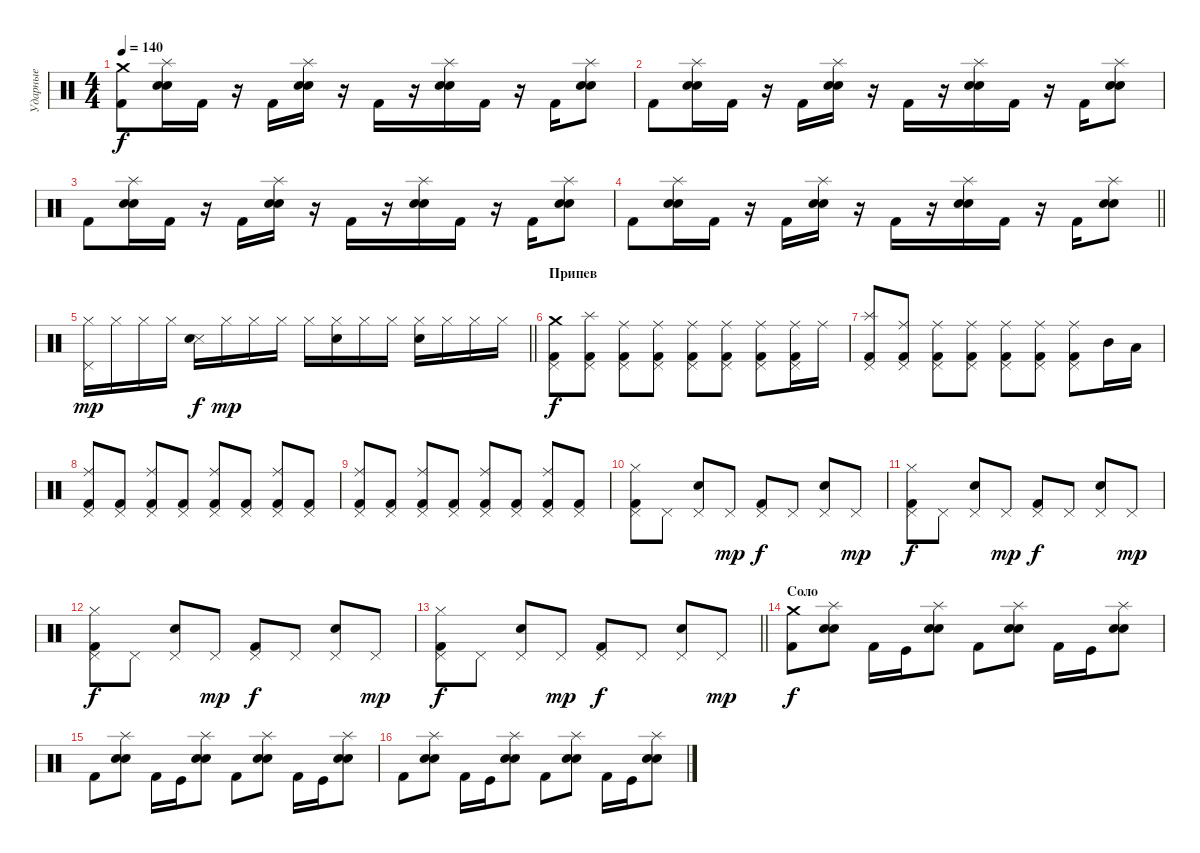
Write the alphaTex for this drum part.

\track ("Ударные" "Ударные") {instrument percussion}
\staff {score}
\articulation defaults
\ts (4 4)
\tempo 140
\clef neutral
\ks c
("Crash medium (hit)" "Kick (hit) 2").8{dy f} ("Splash (hit)" "Electric Snare (hit)" "Snare (hit) 2").16 "Kick (hit) 2".16 r.16 "Kick (hit) 2".16 ("Splash (hit)" "Electric Snare (hit)" "Snare (hit) 2").16 r.16 "Kick (hit) 2".16 r.16 ("Splash (hit)" "Electric Snare (hit)" "Snare (hit) 2").16 "Kick (hit) 2".16 r.16 "Kick (hit) 2".16 ("Splash (hit)" "Electric Snare (hit)" "Snare (hit) 2").8 |
"Kick (hit) 2".8 ("Splash (hit)" "Electric Snare (hit)" "Snare (hit) 2").16 "Kick (hit) 2".16 r.16 "Kick (hit) 2".16 ("Splash (hit)" "Electric Snare (hit)" "Snare (hit) 2").16 r.16 "Kick (hit) 2".16 r.16 ("Splash (hit)" "Electric Snare (hit)" "Snare (hit) 2").16 "Kick (hit) 2".16 r.16 "Kick (hit) 2".16 ("Splash (hit)" "Electric Snare (hit)" "Snare (hit) 2").8 |
"Kick (hit) 2".8 ("Splash (hit)" "Electric Snare (hit)" "Snare (hit) 2").16 "Kick (hit) 2".16 r.16 "Kick (hit) 2".16 ("Splash (hit)" "Electric Snare (hit)" "Snare (hit) 2").16 r.16 "Kick (hit) 2".16 r.16 ("Splash (hit)" "Electric Snare (hit)" "Snare (hit) 2").16 "Kick (hit) 2".16 r.16 "Kick (hit) 2".16 ("Splash (hit)" "Electric Snare (hit)" "Snare (hit) 2").8 |
\barLineRight lightlight "Kick (hit) 2".8
("Splash (hit)" "Electric Snare (hit)" "Snare (hit) 2").16 "Kick (hit) 2".16 r.16 "Kick (hit) 2".16 ("Splash (hit)" "Electric Snare (hit)" "Snare (hit) 2").16 r.16 "Kick (hit) 2".16 r.16 ("Splash (hit)" "Electric Snare (hit)" "Snare (hit) 2").16 "Kick (hit) 2".16 r.16 "Kick (hit) 2".16 ("Splash (hit)" "Electric Snare (hit)" "Snare (hit) 2").8 |
\barLineRight lightlight
("Pedal Hi-Hat (hit)" "Hi-Hat (closed)").16{dy mp} "Hi-Hat (closed)".16 "Hi-Hat (closed)".16 "Hi-Hat (closed)".16 ("Metronome (hit)" "Electric Snare (hit)").16{dy f} "Hi-Hat (closed)".16{dy mp} "Hi-Hat (closed)".16 "Hi-Hat (closed)".16 "Hi-Hat (closed)".16 ("Electric Snare (hit)" "Hi-Hat (closed)").16 "Hi-Hat (closed)".16 "Hi-Hat (closed)".16 ("Electric Snare (hit)" "Hi-Hat (closed)").16 "Hi-Hat (closed)".16 "Hi-Hat (closed)".16 "Hi-Hat (closed)".16 |
\section ("" "Припев")
("Crash medium (hit)" "Pedal Hi-Hat (hit)" "Kick (hit) 2").8{dy f} ("Splash (hit)" "Pedal Hi-Hat (hit)" "Kick (hit) 2").8 ("Ride (middle)" "Pedal Hi-Hat (hit)" "Kick (hit) 2").8 ("Ride (middle)" "Pedal Hi-Hat (hit)" "Kick (hit) 2").8 ("Ride (middle)" "Pedal Hi-Hat (hit)" "Kick (hit) 2").8 ("Ride (middle)" "Pedal Hi-Hat (hit)" "Kick (hit) 2").8 ("Ride (middle)" "Pedal Hi-Hat (hit)" "Kick (hit) 2").8 ("Ride (middle)" "Pedal Hi-Hat (hit)" "Kick (hit) 2").16 "Ride (middle)".16 |
("Splash (hit)" "Pedal Hi-Hat (hit)" "Kick (hit) 2").8 ("Ride (middle)" "Pedal Hi-Hat (hit)" "Kick (hit) 2").8 ("Ride (middle)" "Pedal Hi-Hat (hit)" "Kick (hit) 2").8 ("Ride (middle)" "Pedal Hi-Hat (hit)" "Kick (hit) 2").8 ("Ride (middle)" "Pedal Hi-Hat (hit)" "Kick (hit) 2").8 ("Ride (middle)" "Pedal Hi-Hat (hit)" "Kick (hit) 2").8 ("Ride (middle)" "Pedal Hi-Hat (hit)" "Kick (hit) 2").8 "Mid Tom (hit)".16 "Low Tom (hit)".16 |
("Ride (middle)" "Pedal Hi-Hat (hit)" "Kick (hit) 2").8 ("Pedal Hi-Hat (hit)" "Kick (hit) 2").8 ("Ride (middle)" "Pedal Hi-Hat (hit)" "Kick (hit) 2").8 ("Pedal Hi-Hat (hit)" "Kick (hit) 2").8 ("Ride (middle)" "Pedal Hi-Hat (hit)" "Kick (hit) 2").8 ("Pedal Hi-Hat (hit)" "Kick (hit) 2").8 ("Ride (middle)" "Pedal Hi-Hat (hit)" "Kick (hit) 2").8 ("Pedal Hi-Hat (hit)" "Kick (hit) 2").8 |
("Ride (middle)" "Pedal Hi-Hat (hit)" "Kick (hit) 2").8 ("Pedal Hi-Hat (hit)" "Kick (hit) 2").8 ("Ride (middle)" "Pedal Hi-Hat (hit)" "Kick (hit) 2").8 ("Pedal Hi-Hat (hit)" "Kick (hit) 2").8 ("Ride (middle)" "Pedal Hi-Hat (hit)" "Kick (hit) 2").8 ("Pedal Hi-Hat (hit)" "Kick (hit) 2").8 ("Ride (middle)" "Pedal Hi-Hat (hit)" "Kick (hit) 2").8 ("Pedal Hi-Hat (hit)" "Kick (hit) 2").8 |
("Pedal Hi-Hat (hit)" "Hi-Hat (closed)" "Kick (hit) 2").8 "Pedal Hi-Hat (hit)".8 ("Pedal Hi-Hat (hit)" "Electric Snare (hit)").8 "Pedal Hi-Hat (hit)".8{dy mp} ("Pedal Hi-Hat (hit)" "Kick (hit) 2").8{dy f} "Pedal Hi-Hat (hit)".8 ("Pedal Hi-Hat (hit)" "Electric Snare (hit)").8 "Pedal Hi-Hat (hit)".8{dy mp} |
("Pedal Hi-Hat (hit)" "Hi-Hat (closed)" "Kick (hit) 2").8{dy f} "Pedal Hi-Hat (hit)".8 ("Pedal Hi-Hat (hit)" "Electric Snare (hit)").8 "Pedal Hi-Hat (hit)".8{dy mp} ("Pedal Hi-Hat (hit)" "Kick (hit) 2").8{dy f} "Pedal Hi-Hat (hit)".8 ("Pedal Hi-Hat (hit)" "Electric Snare (hit)").8 "Pedal Hi-Hat (hit)".8{dy mp} |
("Pedal Hi-Hat (hit)" "Hi-Hat (closed)" "Kick (hit) 2").8{dy f} "Pedal Hi-Hat (hit)".8 ("Pedal Hi-Hat (hit)" "Electric Snare (hit)").8 "Pedal Hi-Hat (hit)".8{dy mp} ("Pedal Hi-Hat (hit)" "Kick (hit) 2").8{dy f} "Pedal Hi-Hat (hit)".8 ("Pedal Hi-Hat (hit)" "Electric Snare (hit)").8 "Pedal Hi-Hat (hit)".8{dy mp} |
\barLineRight lightlight
("Pedal Hi-Hat (hit)" "Hi-Hat (closed)" "Kick (hit) 2").8{dy f} "Pedal Hi-Hat (hit)".8 ("Pedal Hi-Hat (hit)" "Electric Snare (hit)").8 "Pedal Hi-Hat (hit)".8{dy mp} ("Pedal Hi-Hat (hit)" "Kick (hit) 2").8{dy f} "Pedal Hi-Hat (hit)".8 ("Pedal Hi-Hat (hit)" "Electric Snare (hit)").8 "Pedal Hi-Hat (hit)".8{dy mp} |
\section ("" "Соло")
("Crash medium (hit)" "Kick (hit) 2").8{dy f} ("Splash (hit)" "Electric Snare (hit)" "Snare (hit) 2").8 "Kick (hit) 2".16 "Kick (hit)".16 ("Splash (hit)" "Electric Snare (hit)" "Snare (hit) 2").8 "Kick (hit) 2".8 ("Splash (hit)" "Electric Snare (hit)" "Snare (hit) 2").8 "Kick (hit) 2".16 "Kick (hit)".16 ("Splash (hit)" "Electric Snare (hit)" "Snare (hit) 2").8 |
"Kick (hit) 2".8 ("Splash (hit)" "Electric Snare (hit)" "Snare (hit) 2").8 "Kick (hit) 2".16 "Kick (hit)".16 ("Splash (hit)" "Electric Snare (hit)" "Snare (hit) 2").8 "Kick (hit) 2".8 ("Splash (hit)" "Electric Snare (hit)" "Snare (hit) 2").8 "Kick (hit) 2".16 "Kick (hit)".16 ("Splash (hit)" "Electric Snare (hit)" "Snare (hit) 2").8 |
"Kick (hit) 2".8 ("Splash (hit)" "Electric Snare (hit)" "Snare (hit) 2").8 "Kick (hit) 2".16 "Kick (hit)".16 ("Splash (hit)" "Electric Snare (hit)" "Snare (hit) 2").8 "Kick (hit) 2".8 ("Splash (hit)" "Electric Snare (hit)" "Snare (hit) 2").8 "Kick (hit) 2".16 "Kick (hit)".16 ("Splash (hit)" "Electric Snare (hit)" "Snare (hit) 2").8
